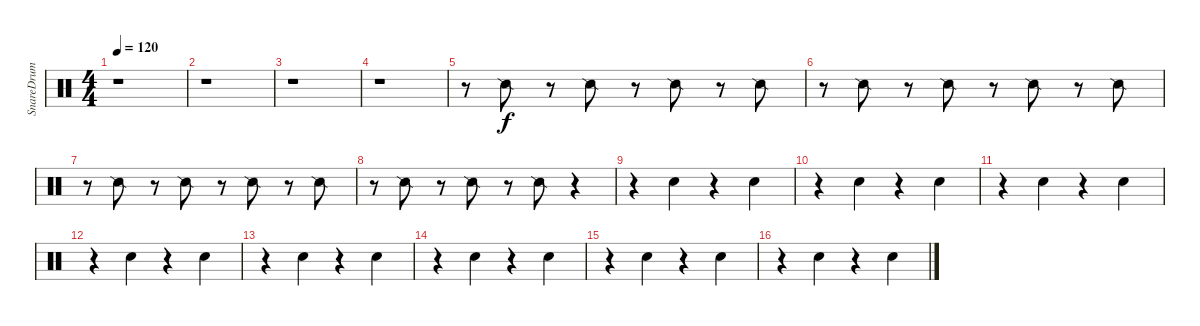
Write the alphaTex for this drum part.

\track ("SnareDrum" "SnareDrum") {instrument percussion}
\staff {score}
\articulation defaults
\ts (4 4)
\tempo 120
\clef neutral
\ks c
r.1{dy f} |
r.1 |
r.1 |
r.1 |
r.8 "Snare (side stick) 2".8 r.8 "Snare (side stick) 2".8 r.8 "Snare (side stick) 2".8 r.8 "Snare (side stick) 2".8 |
r.8 "Snare (side stick) 2".8 r.8 "Snare (side stick) 2".8 r.8 "Snare (side stick) 2".8 r.8 "Snare (side stick) 2".8 |
r.8 "Snare (side stick) 2".8 r.8 "Snare (side stick) 2".8 r.8 "Snare (side stick) 2".8 r.8 "Snare (side stick) 2".8 |
r.8 "Snare (side stick) 2".8 r.8 "Snare (side stick) 2".8 r.8 "Snare (side stick) 2".8 r.4 |
r.4 "Snare (hit) 2".4 r.4 "Snare (hit) 2".4 |
r.4 "Snare (hit) 2".4 r.4 "Snare (hit) 2".4 |
r.4 "Snare (hit) 2".4 r.4 "Snare (hit) 2".4 |
r.4 "Snare (hit) 2".4 r.4 "Snare (hit) 2".4 |
r.4 "Snare (hit) 2".4 r.4 "Snare (hit) 2".4 |
r.4 "Snare (hit) 2".4 r.4 "Snare (hit) 2".4 |
r.4 "Snare (hit) 2".4 r.4 "Snare (hit) 2".4 |
r.4 "Snare (hit) 2".4 r.4 "Snare (hit) 2".4
